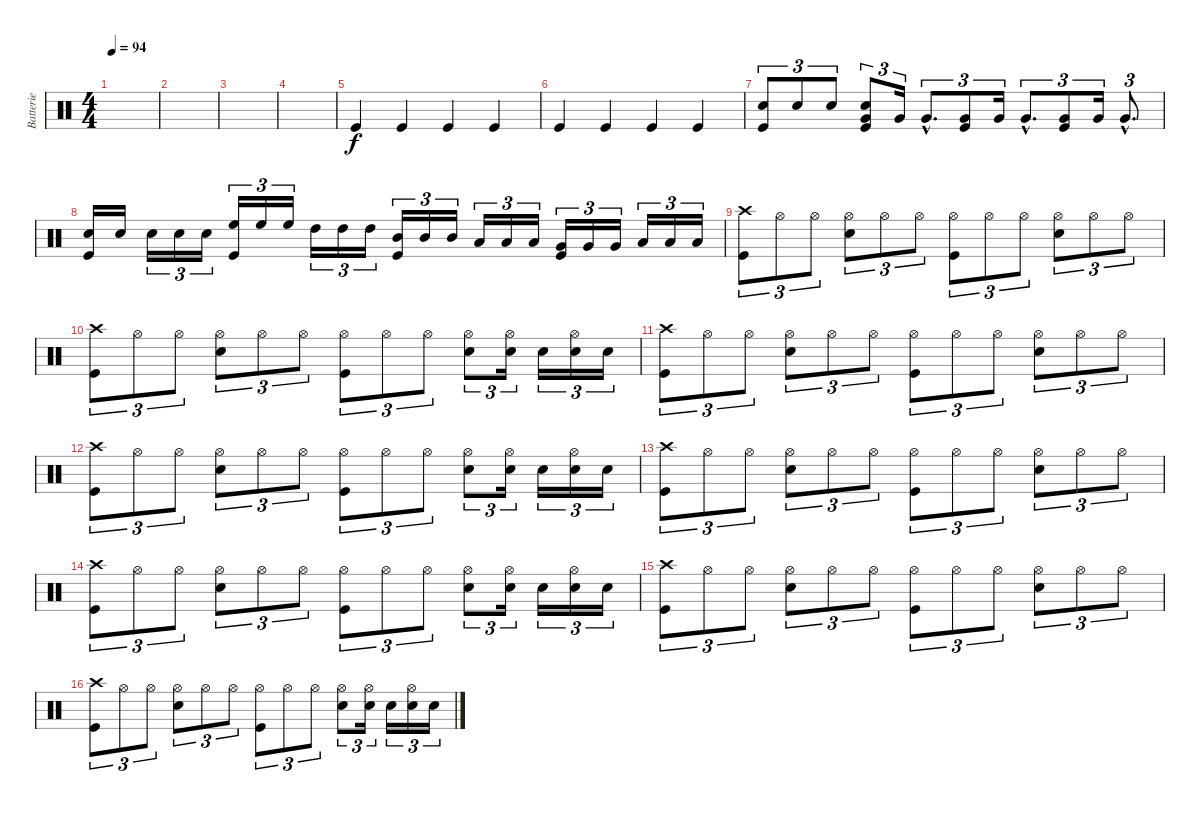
\track ("Batterie" "Batterie") {instrument percussion}
\staff {score}
\articulation defaults
\ts (4 4)
\tempo 94
\clef neutral
\ks c
|
|
|
|
"Kick (hit)".4 "Kick (hit)".4 "Kick (hit)".4 "Kick (hit)".4 |
"Kick (hit)".4 "Kick (hit)".4 "Kick (hit)".4 "Kick (hit)".4 |
("Snare (hit) 2" "Kick (hit)").8{tu (3 2)} "Snare (hit) 2".8{tu (3 2)} "Snare (hit) 2".8{tu (3 2)} ("Snare (hit) 2" "Very Low Tom (hit)" "Kick (hit)").8{tu (3 2)} "Very Low Tom (hit)".16{tu (3 2)} "Very Low Tom (hit)"{hac}.8{d tu (3 2)} ("Very Low Tom (hit)" "Kick (hit)").8{tu (3 2)} "Very Low Tom (hit)".16{tu (3 2)} "Very Low Tom (hit)"{hac}.8{d tu (3 2)} ("Very Low Tom (hit)" "Kick (hit)").8{tu (3 2)} "Very Low Tom (hit)".16{tu (3 2)} "Very Low Tom (hit)"{hac}.8{d tu (3 2)} |
("Snare (hit) 2" "Kick (hit)").16 "Snare (hit) 2".16 "Snare (hit) 2".16{tu (3 2)} "Snare (hit) 2".16{tu (3 2)} "Snare (hit) 2".16{tu (3 2)} ("High Floor Tom (hit)" "Kick (hit)").16{tu (3 2)} "High Floor Tom (hit)".16{tu (3 2)} "High Floor Tom (hit)".16{tu (3 2)} "High Tom (hit)".16{tu (3 2)} "High Tom (hit)".16{tu (3 2)} "High Tom (hit)".16{tu (3 2)} ("Mid Tom (hit)" "Kick (hit)").16{tu (3 2)} "Mid Tom (hit)".16{tu (3 2)} "Mid Tom (hit)".16{tu (3 2)} "Low Tom (hit)".16{tu (3 2)} "Low Tom (hit)".16{tu (3 2)} "Low Tom (hit)".16{tu (3 2)} ("Very Low Tom (hit)" "Kick (hit)").16{tu (3 2)} "Very Low Tom (hit)".16{tu (3 2)} "Very Low Tom (hit)".16{tu (3 2)} "Low Floor Tom (hit)".16{tu (3 2)} "Low Floor Tom (hit)".16{tu (3 2)} "Low Floor Tom (hit)".16{tu (3 2)} |
("Crash high (hit)" "Kick (hit)").8{tu (3 2)} "Hi-Hat (open)".8{tu (3 2)} "Hi-Hat (open)".8{tu (3 2)} ("Hi-Hat (open)" "Snare (hit) 2").8{tu (3 2)} "Hi-Hat (open)".8{tu (3 2)} "Hi-Hat (open)".8{tu (3 2)} ("Hi-Hat (open)" "Kick (hit)").8{tu (3 2)} "Hi-Hat (open)".8{tu (3 2)} "Hi-Hat (open)".8{tu (3 2)} ("Hi-Hat (open)" "Snare (hit) 2").8{tu (3 2)} "Hi-Hat (open)".8{tu (3 2)} "Hi-Hat (open)".8{tu (3 2)} |
("Crash high (hit)" "Kick (hit)").8{tu (3 2)} "Hi-Hat (open)".8{tu (3 2)} "Hi-Hat (open)".8{tu (3 2)} ("Hi-Hat (open)" "Snare (hit) 2").8{tu (3 2)} "Hi-Hat (open)".8{tu (3 2)} "Hi-Hat (open)".8{tu (3 2)} ("Hi-Hat (open)" "Kick (hit)").8{tu (3 2)} "Hi-Hat (open)".8{tu (3 2)} "Hi-Hat (open)".8{tu (3 2)} ("Hi-Hat (open)" "Snare (hit) 2").8{tu (3 2)} ("Hi-Hat (open)" "Snare (hit) 2").16{tu (3 2)} "Snare (hit) 2".16{tu (3 2)} ("Hi-Hat (open)" "Snare (hit) 2").16{tu (3 2)} "Snare (hit) 2".16{tu (3 2)} |
("Crash high (hit)" "Kick (hit)").8{tu (3 2)} "Hi-Hat (open)".8{tu (3 2)} "Hi-Hat (open)".8{tu (3 2)} ("Hi-Hat (open)" "Snare (hit) 2").8{tu (3 2)} "Hi-Hat (open)".8{tu (3 2)} "Hi-Hat (open)".8{tu (3 2)} ("Hi-Hat (open)" "Kick (hit)").8{tu (3 2)} "Hi-Hat (open)".8{tu (3 2)} "Hi-Hat (open)".8{tu (3 2)} ("Hi-Hat (open)" "Snare (hit) 2").8{tu (3 2)} "Hi-Hat (open)".8{tu (3 2)} "Hi-Hat (open)".8{tu (3 2)} |
("Crash high (hit)" "Kick (hit)").8{tu (3 2)} "Hi-Hat (open)".8{tu (3 2)} "Hi-Hat (open)".8{tu (3 2)} ("Hi-Hat (open)" "Snare (hit) 2").8{tu (3 2)} "Hi-Hat (open)".8{tu (3 2)} "Hi-Hat (open)".8{tu (3 2)} ("Hi-Hat (open)" "Kick (hit)").8{tu (3 2)} "Hi-Hat (open)".8{tu (3 2)} "Hi-Hat (open)".8{tu (3 2)} ("Hi-Hat (open)" "Snare (hit) 2").8{tu (3 2)} ("Hi-Hat (open)" "Snare (hit) 2").16{tu (3 2)} "Snare (hit) 2".16{tu (3 2)} ("Hi-Hat (open)" "Snare (hit) 2").16{tu (3 2)} "Snare (hit) 2".16{tu (3 2)} |
("Crash high (hit)" "Kick (hit)").8{tu (3 2)} "Hi-Hat (open)".8{tu (3 2)} "Hi-Hat (open)".8{tu (3 2)} ("Hi-Hat (open)" "Snare (hit) 2").8{tu (3 2)} "Hi-Hat (open)".8{tu (3 2)} "Hi-Hat (open)".8{tu (3 2)} ("Hi-Hat (open)" "Kick (hit)").8{tu (3 2)} "Hi-Hat (open)".8{tu (3 2)} "Hi-Hat (open)".8{tu (3 2)} ("Hi-Hat (open)" "Snare (hit) 2").8{tu (3 2)} "Hi-Hat (open)".8{tu (3 2)} "Hi-Hat (open)".8{tu (3 2)} |
("Crash high (hit)" "Kick (hit)").8{tu (3 2)} "Hi-Hat (open)".8{tu (3 2)} "Hi-Hat (open)".8{tu (3 2)} ("Hi-Hat (open)" "Snare (hit) 2").8{tu (3 2)} "Hi-Hat (open)".8{tu (3 2)} "Hi-Hat (open)".8{tu (3 2)} ("Hi-Hat (open)" "Kick (hit)").8{tu (3 2)} "Hi-Hat (open)".8{tu (3 2)} "Hi-Hat (open)".8{tu (3 2)} ("Hi-Hat (open)" "Snare (hit) 2").8{tu (3 2)} ("Hi-Hat (open)" "Snare (hit) 2").16{tu (3 2)} "Snare (hit) 2".16{tu (3 2)} ("Hi-Hat (open)" "Snare (hit) 2").16{tu (3 2)} "Snare (hit) 2".16{tu (3 2)} |
("Crash high (hit)" "Kick (hit)").8{tu (3 2)} "Hi-Hat (open)".8{tu (3 2)} "Hi-Hat (open)".8{tu (3 2)} ("Hi-Hat (open)" "Snare (hit) 2").8{tu (3 2)} "Hi-Hat (open)".8{tu (3 2)} "Hi-Hat (open)".8{tu (3 2)} ("Hi-Hat (open)" "Kick (hit)").8{tu (3 2)} "Hi-Hat (open)".8{tu (3 2)} "Hi-Hat (open)".8{tu (3 2)} ("Hi-Hat (open)" "Snare (hit) 2").8{tu (3 2)} "Hi-Hat (open)".8{tu (3 2)} "Hi-Hat (open)".8{tu (3 2)} |
("Crash high (hit)" "Kick (hit)").8{tu (3 2)} "Hi-Hat (open)".8{tu (3 2)} "Hi-Hat (open)".8{tu (3 2)} ("Hi-Hat (open)" "Snare (hit) 2").8{tu (3 2)} "Hi-Hat (open)".8{tu (3 2)} "Hi-Hat (open)".8{tu (3 2)} ("Hi-Hat (open)" "Kick (hit)").8{tu (3 2)} "Hi-Hat (open)".8{tu (3 2)} "Hi-Hat (open)".8{tu (3 2)} ("Hi-Hat (open)" "Snare (hit) 2").8{tu (3 2)} ("Hi-Hat (open)" "Snare (hit) 2").16{tu (3 2)} "Snare (hit) 2".16{tu (3 2)} ("Hi-Hat (open)" "Snare (hit) 2").16{tu (3 2)} "Snare (hit) 2".16{tu (3 2)}
